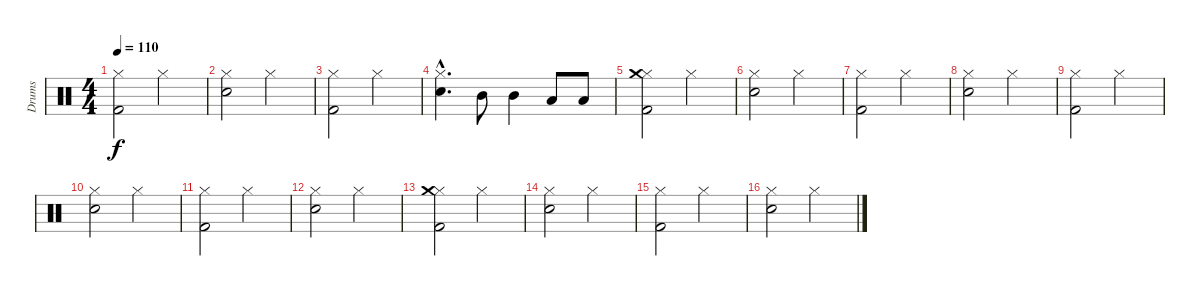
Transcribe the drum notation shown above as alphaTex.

\track ("Drums" "Drums") {instrument percussion}
\staff {score}
\articulation defaults
\ts (4 4)
\tempo 110
\clef neutral
\ks c
("Hi-Hat (closed)" "Kick (hit) 2").2{dy f} "Hi-Hat (closed)".2 |
("Hi-Hat (closed)" "Snare (hit) 2").2 "Hi-Hat (closed)".2 |
("Hi-Hat (closed)" "Kick (hit) 2").2 "Hi-Hat (closed)".2 |
("Hi-Hat (closed)"{hac} "Snare (hit) 2"{hac}).4{d} "Mid Tom (hit)".8 "Mid Tom (hit)".4 "Low Tom (hit)".8 "Low Tom (hit)".8 |
("Hi-Hat (closed)" "Kick (hit) 2" "Crash medium (hit)").2 "Hi-Hat (closed)".2 |
("Hi-Hat (closed)" "Snare (hit) 2").2 "Hi-Hat (closed)".2 |
("Hi-Hat (closed)" "Kick (hit) 2").2 "Hi-Hat (closed)".2 |
("Hi-Hat (closed)" "Snare (hit) 2").2 "Hi-Hat (closed)".2 |
("Hi-Hat (closed)" "Kick (hit) 2").2 "Hi-Hat (closed)".2 |
("Hi-Hat (closed)" "Snare (hit) 2").2 "Hi-Hat (closed)".2 |
("Hi-Hat (closed)" "Kick (hit) 2").2 "Hi-Hat (closed)".2 |
("Hi-Hat (closed)" "Snare (hit) 2").2 "Hi-Hat (closed)".2 |
("Hi-Hat (closed)" "Kick (hit) 2" "Crash medium (hit)").2 "Hi-Hat (closed)".2 |
("Hi-Hat (closed)" "Snare (hit) 2").2 "Hi-Hat (closed)".2 |
("Hi-Hat (closed)" "Kick (hit) 2").2 "Hi-Hat (closed)".2 |
("Hi-Hat (closed)" "Snare (hit) 2").2 "Hi-Hat (closed)".2
